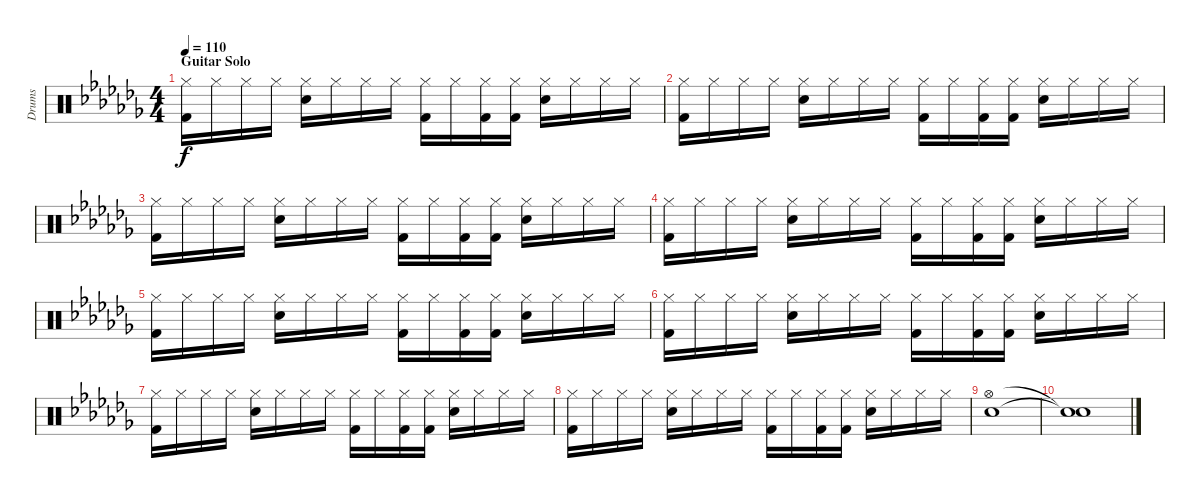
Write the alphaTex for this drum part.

\track ("Drums" "Drums") {instrument percussion}
\staff {score}
\articulation defaults
\ts (4 4)
\section ("" "Guitar Solo")
\tempo 110
\clef neutral
\ks abminor
("Hi-Hat (closed)" "Kick (hit) 2").16{dy f} "Hi-Hat (closed)".16 "Hi-Hat (closed)".16 "Hi-Hat (closed)".16 ("Hi-Hat (closed)" "Snare (hit) 2").16 "Hi-Hat (closed)".16 "Hi-Hat (closed)".16 "Hi-Hat (closed)".16 ("Hi-Hat (closed)" "Kick (hit) 2").16 "Hi-Hat (closed)".16 ("Hi-Hat (closed)" "Kick (hit) 2").16 ("Hi-Hat (closed)" "Kick (hit) 2").16 ("Hi-Hat (closed)" "Snare (hit) 2").16 "Hi-Hat (closed)".16 "Hi-Hat (closed)".16 "Hi-Hat (closed)".16 |
("Hi-Hat (closed)" "Kick (hit) 2").16 "Hi-Hat (closed)".16 "Hi-Hat (closed)".16 "Hi-Hat (closed)".16 ("Hi-Hat (closed)" "Snare (hit) 2").16 "Hi-Hat (closed)".16 "Hi-Hat (closed)".16 "Hi-Hat (closed)".16 ("Hi-Hat (closed)" "Kick (hit) 2").16 "Hi-Hat (closed)".16 ("Hi-Hat (closed)" "Kick (hit) 2").16 ("Hi-Hat (closed)" "Kick (hit) 2").16 ("Hi-Hat (closed)" "Snare (hit) 2").16 "Hi-Hat (closed)".16 "Hi-Hat (closed)".16 "Hi-Hat (closed)".16 |
("Hi-Hat (closed)" "Kick (hit) 2").16 "Hi-Hat (closed)".16 "Hi-Hat (closed)".16 "Hi-Hat (closed)".16 ("Hi-Hat (closed)" "Snare (hit) 2").16 "Hi-Hat (closed)".16 "Hi-Hat (closed)".16 "Hi-Hat (closed)".16 ("Hi-Hat (closed)" "Kick (hit) 2").16 "Hi-Hat (closed)".16 ("Hi-Hat (closed)" "Kick (hit) 2").16 ("Hi-Hat (closed)" "Kick (hit) 2").16 ("Hi-Hat (closed)" "Snare (hit) 2").16 "Hi-Hat (closed)".16 "Hi-Hat (closed)".16 "Hi-Hat (closed)".16 |
("Hi-Hat (closed)" "Kick (hit) 2").16 "Hi-Hat (closed)".16 "Hi-Hat (closed)".16 "Hi-Hat (closed)".16 ("Hi-Hat (closed)" "Snare (hit) 2").16 "Hi-Hat (closed)".16 "Hi-Hat (closed)".16 "Hi-Hat (closed)".16 ("Hi-Hat (closed)" "Kick (hit) 2").16 "Hi-Hat (closed)".16 ("Hi-Hat (closed)" "Kick (hit) 2").16 ("Hi-Hat (closed)" "Kick (hit) 2").16 ("Hi-Hat (closed)" "Snare (hit) 2").16 "Hi-Hat (closed)".16 "Hi-Hat (closed)".16 "Hi-Hat (closed)".16 |
("Hi-Hat (closed)" "Kick (hit) 2").16 "Hi-Hat (closed)".16 "Hi-Hat (closed)".16 "Hi-Hat (closed)".16 ("Hi-Hat (closed)" "Snare (hit) 2").16 "Hi-Hat (closed)".16 "Hi-Hat (closed)".16 "Hi-Hat (closed)".16 ("Hi-Hat (closed)" "Kick (hit) 2").16 "Hi-Hat (closed)".16 ("Hi-Hat (closed)" "Kick (hit) 2").16 ("Hi-Hat (closed)" "Kick (hit) 2").16 ("Hi-Hat (closed)" "Snare (hit) 2").16 "Hi-Hat (closed)".16 "Hi-Hat (closed)".16 "Hi-Hat (closed)".16 |
("Hi-Hat (closed)" "Kick (hit) 2").16 "Hi-Hat (closed)".16 "Hi-Hat (closed)".16 "Hi-Hat (closed)".16 ("Hi-Hat (closed)" "Snare (hit) 2").16 "Hi-Hat (closed)".16 "Hi-Hat (closed)".16 "Hi-Hat (closed)".16 ("Hi-Hat (closed)" "Kick (hit) 2").16 "Hi-Hat (closed)".16 ("Hi-Hat (closed)" "Kick (hit) 2").16 ("Hi-Hat (closed)" "Kick (hit) 2").16 ("Hi-Hat (closed)" "Snare (hit) 2").16 "Hi-Hat (closed)".16 "Hi-Hat (closed)".16 "Hi-Hat (closed)".16 |
("Hi-Hat (closed)" "Kick (hit) 2").16 "Hi-Hat (closed)".16 "Hi-Hat (closed)".16 "Hi-Hat (closed)".16 ("Hi-Hat (closed)" "Snare (hit) 2").16 "Hi-Hat (closed)".16 "Hi-Hat (closed)".16 "Hi-Hat (closed)".16 ("Hi-Hat (closed)" "Kick (hit) 2").16 "Hi-Hat (closed)".16 ("Hi-Hat (closed)" "Kick (hit) 2").16 ("Hi-Hat (closed)" "Kick (hit) 2").16 ("Hi-Hat (closed)" "Snare (hit) 2").16 "Hi-Hat (closed)".16 "Hi-Hat (closed)".16 "Hi-Hat (closed)".16 |
("Hi-Hat (closed)" "Kick (hit) 2").16 "Hi-Hat (closed)".16 "Hi-Hat (closed)".16 "Hi-Hat (closed)".16 ("Hi-Hat (closed)" "Snare (hit) 2").16 "Hi-Hat (closed)".16 "Hi-Hat (closed)".16 "Hi-Hat (closed)".16 ("Hi-Hat (closed)" "Kick (hit) 2").16 "Hi-Hat (closed)".16 ("Hi-Hat (closed)" "Kick (hit) 2").16 ("Hi-Hat (closed)" "Kick (hit) 2").16 ("Hi-Hat (closed)" "Snare (hit) 2").16 "Hi-Hat (closed)".16 "Hi-Hat (closed)".16 "Hi-Hat (closed)".16 |
("Snare (hit) 2" "Hi-Hat (open)").1 |
("Snare (hit)"{t} "Snare (hit)"{t}).1
